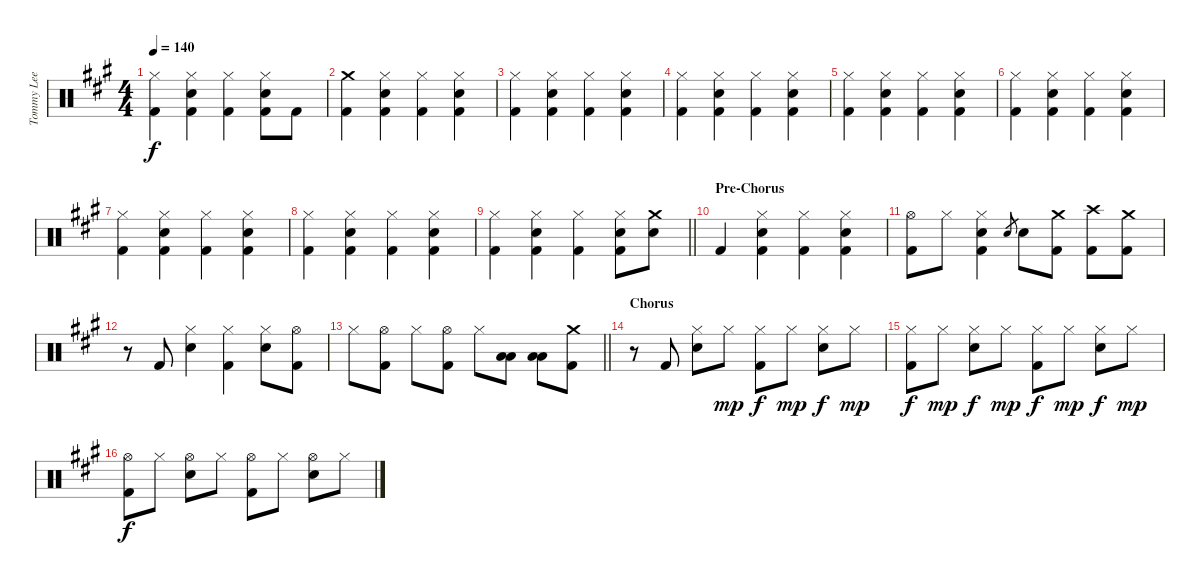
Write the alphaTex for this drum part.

\track ("Tommy Lee - Drums" "Tommy Lee ") {instrument percussion}
\staff {score}
\articulation defaults
\ts (4 4)
\tempo 140
\clef neutral
\ks a
("Hi-Hat (closed)" "Kick (hit) 2").4{dy f} ("Hi-Hat (closed)" "Snare (hit) 2" "Kick (hit) 2").4 ("Hi-Hat (closed)" "Kick (hit) 2").4 ("Hi-Hat (closed)" "Snare (hit) 2" "Kick (hit) 2").8 "Kick (hit) 2".8 |
("Crash medium (hit)" "Kick (hit) 2").4 ("Hi-Hat (closed)" "Snare (hit) 2" "Kick (hit) 2").4 ("Hi-Hat (closed)" "Kick (hit) 2").4 ("Hi-Hat (closed)" "Snare (hit) 2" "Kick (hit) 2").4 |
("Hi-Hat (closed)" "Kick (hit) 2").4 ("Hi-Hat (closed)" "Snare (hit) 2" "Kick (hit) 2").4 ("Hi-Hat (closed)" "Kick (hit) 2").4 ("Hi-Hat (closed)" "Snare (hit) 2" "Kick (hit) 2").4 |
("Hi-Hat (closed)" "Kick (hit) 2").4 ("Hi-Hat (closed)" "Snare (hit) 2" "Kick (hit) 2").4 ("Hi-Hat (closed)" "Kick (hit) 2").4 ("Hi-Hat (closed)" "Snare (hit) 2" "Kick (hit) 2").4 |
("Hi-Hat (closed)" "Kick (hit) 2").4 ("Hi-Hat (closed)" "Snare (hit) 2" "Kick (hit) 2").4 ("Hi-Hat (closed)" "Kick (hit) 2").4 ("Hi-Hat (closed)" "Snare (hit) 2" "Kick (hit) 2").4 |
("Hi-Hat (closed)" "Kick (hit) 2").4 ("Hi-Hat (closed)" "Snare (hit) 2" "Kick (hit) 2").4 ("Hi-Hat (closed)" "Kick (hit) 2").4 ("Hi-Hat (closed)" "Snare (hit) 2" "Kick (hit) 2").4 |
("Hi-Hat (closed)" "Kick (hit) 2").4 ("Hi-Hat (closed)" "Snare (hit) 2" "Kick (hit) 2").4 ("Hi-Hat (closed)" "Kick (hit) 2").4 ("Hi-Hat (closed)" "Snare (hit) 2" "Kick (hit) 2").4 |
("Hi-Hat (closed)" "Kick (hit) 2").4 ("Hi-Hat (closed)" "Snare (hit) 2" "Kick (hit) 2").4 ("Hi-Hat (closed)" "Kick (hit) 2").4 ("Hi-Hat (closed)" "Snare (hit) 2" "Kick (hit) 2").4 |
\barLineRight lightlight
("Hi-Hat (closed)" "Kick (hit) 2").4 ("Hi-Hat (closed)" "Snare (hit) 2" "Kick (hit) 2").4 ("Hi-Hat (closed)" "Kick (hit) 2").4 ("Hi-Hat (closed)" "Snare (hit) 2" "Kick (hit) 2").8 ("Crash medium (hit)" "Snare (hit) 2").8 |
\section ("" "Pre-Chorus")
"Kick (hit) 2".4 ("Hi-Hat (closed)" "Snare (hit) 2" "Kick (hit) 2").4 ("Hi-Hat (closed)" "Kick (hit) 2").4 ("Hi-Hat (closed)" "Snare (hit) 2" "Kick (hit) 2").4 |
("Hi-Hat (open)" "Kick (hit) 2").8 "Hi-Hat (closed)".8 ("Hi-Hat (closed)" "Snare (hit) 2" "Kick (hit) 2").4 "Snare (hit) 2".8{gr} "Snare (hit) 2".8 ("Crash medium (hit)" "Kick (hit) 2").8 ("Crash high (hit)" "Kick (hit) 2").8 ("Crash medium (hit)" "Kick (hit) 2").8 |
r.8 "Kick (hit) 2".8 ("Hi-Hat (closed)" "Snare (hit) 2").4 ("Hi-Hat (closed)" "Kick (hit) 2").4 ("Hi-Hat (closed)" "Snare (hit) 2").8 ("Hi-Hat (open)" "Kick (hit) 2").8 |
\barLineRight lightlight "Hi-Hat (closed)".8
("Hi-Hat (open)" "Kick (hit) 2").8 "Hi-Hat (closed)".8 ("Hi-Hat (open)" "Kick (hit) 2").8 "Hi-Hat (closed)".8 ("Low Tom (hit)" "Low Tom (hit)").8 ("Low Tom (hit)" "Low Tom (hit)").8 ("Crash medium (hit)" "Kick (hit) 2").8 |
\section ("" "Chorus")
r.8 "Kick (hit) 2".8 ("Hi-Hat (closed)" "Snare (hit) 2").8 "Hi-Hat (closed)".8{dy mp} ("Hi-Hat (closed)" "Kick (hit) 2").8{dy f} "Hi-Hat (closed)".8{dy mp} ("Hi-Hat (closed)" "Snare (hit) 2").8{dy f} "Hi-Hat (closed)".8{dy mp} |
("Hi-Hat (closed)" "Kick (hit) 2").8{dy f} "Hi-Hat (closed)".8{dy mp} ("Hi-Hat (closed)" "Snare (hit) 2").8{dy f} "Hi-Hat (closed)".8{dy mp} ("Hi-Hat (closed)" "Kick (hit) 2").8{dy f} "Hi-Hat (closed)".8{dy mp} ("Hi-Hat (closed)" "Snare (hit) 2").8{dy f} "Hi-Hat (closed)".8{dy mp} |
("Hi-Hat (open)" "Kick (hit) 2").8{dy f} "Hi-Hat (closed)".8 ("Hi-Hat (open)" "Snare (hit) 2").8 "Hi-Hat (closed)".8 ("Hi-Hat (open)" "Kick (hit) 2").8 "Hi-Hat (closed)".8 ("Hi-Hat (open)" "Snare (hit) 2").8 "Hi-Hat (closed)".8
